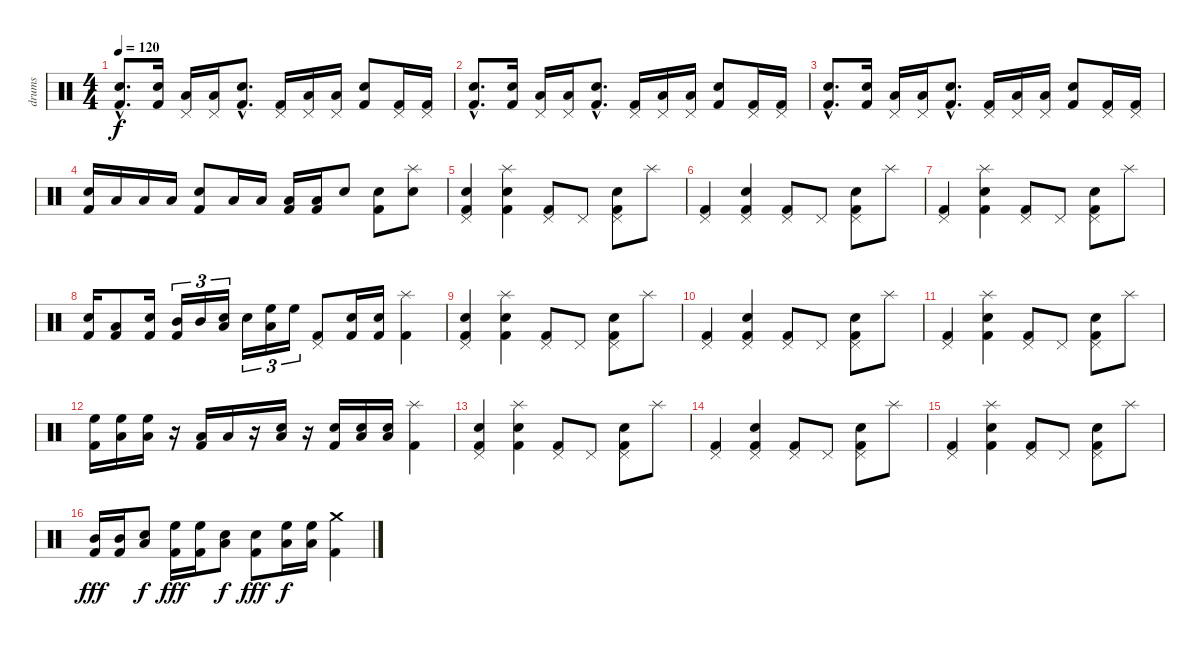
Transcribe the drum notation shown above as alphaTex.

\track ("drums" "drums") {instrument percussion}
\staff {score}
\articulation defaults
\ts (4 4)
\tempo 120
\clef neutral
\ks c
("Electric Snare (hit)"{hac} "Kick (hit) 2"{hac}).8{d dy f} ("Electric Snare (hit)" "Kick (hit) 2").16 ("Pedal Hi-Hat (hit)" "Low Tom (hit)").16 ("Pedal Hi-Hat (hit)" "Low Tom (hit)").16 ("Electric Snare (hit)"{hac} "Kick (hit) 2"{hac}).8{d} ("Pedal Hi-Hat (hit)" "Kick (hit) 2").16 ("Pedal Hi-Hat (hit)" "Low Tom (hit)").16 ("Pedal Hi-Hat (hit)" "Low Tom (hit)").16 ("Electric Snare (hit)" "Kick (hit) 2").8 ("Pedal Hi-Hat (hit)" "Kick (hit) 2").16 ("Pedal Hi-Hat (hit)" "Kick (hit) 2").16 |
("Electric Snare (hit)"{hac} "Kick (hit) 2"{hac}).8{d} ("Electric Snare (hit)" "Kick (hit) 2").16 ("Pedal Hi-Hat (hit)" "Low Tom (hit)").16 ("Pedal Hi-Hat (hit)" "Low Tom (hit)").16 ("Electric Snare (hit)"{hac} "Kick (hit) 2"{hac}).8{d} ("Pedal Hi-Hat (hit)" "Kick (hit) 2").16 ("Pedal Hi-Hat (hit)" "Low Tom (hit)").16 ("Pedal Hi-Hat (hit)" "Low Tom (hit)").16 ("Electric Snare (hit)" "Kick (hit) 2").8 ("Pedal Hi-Hat (hit)" "Kick (hit) 2").16 ("Pedal Hi-Hat (hit)" "Kick (hit) 2").16 |
("Electric Snare (hit)"{hac} "Kick (hit) 2"{hac}).8{d} ("Electric Snare (hit)" "Kick (hit) 2").16 ("Pedal Hi-Hat (hit)" "Low Tom (hit)").16 ("Pedal Hi-Hat (hit)" "Low Tom (hit)").16 ("Electric Snare (hit)"{hac} "Kick (hit) 2"{hac}).8{d} ("Pedal Hi-Hat (hit)" "Kick (hit) 2").16 ("Pedal Hi-Hat (hit)" "Low Tom (hit)").16 ("Pedal Hi-Hat (hit)" "Low Tom (hit)").16 ("Electric Snare (hit)" "Kick (hit) 2").8 ("Pedal Hi-Hat (hit)" "Kick (hit) 2").16 ("Pedal Hi-Hat (hit)" "Kick (hit) 2").16 |
("Electric Snare (hit)" "Kick (hit) 2").16 "Low Tom (hit)".16 "Low Tom (hit)".16 "Low Tom (hit)".16 ("Electric Snare (hit)" "Kick (hit) 2").8 "Low Tom (hit)".16 "Low Tom (hit)".16 ("Low Tom (hit)" "Kick (hit) 2").16 ("Low Tom (hit)" "Kick (hit) 2").16 "Electric Snare (hit)".8 ("Electric Snare (hit)" "Kick (hit) 2").8 ("Splash (hit)" "Electric Snare (hit)").8 |
("Pedal Hi-Hat (hit)" "Electric Snare (hit)" "Kick (hit) 2").4 ("Splash (hit)" "Electric Snare (hit)" "Kick (hit) 2").4 ("Pedal Hi-Hat (hit)" "Kick (hit) 2").8 "Pedal Hi-Hat (hit)".8 ("Pedal Hi-Hat (hit)" "Electric Snare (hit)" "Kick (hit) 2").8 "Splash (hit)".8 |
("Pedal Hi-Hat (hit)" "Kick (hit) 2").4 ("Pedal Hi-Hat (hit)" "Electric Snare (hit)" "Kick (hit) 2").4 ("Pedal Hi-Hat (hit)" "Kick (hit) 2").8 "Pedal Hi-Hat (hit)".8 ("Pedal Hi-Hat (hit)" "Electric Snare (hit)" "Kick (hit) 2").8 "Splash (hit)".8 |
("Pedal Hi-Hat (hit)" "Kick (hit) 2").4 ("Splash (hit)" "Electric Snare (hit)" "Kick (hit) 2").4 ("Pedal Hi-Hat (hit)" "Kick (hit) 2").8 "Pedal Hi-Hat (hit)".8 ("Pedal Hi-Hat (hit)" "Electric Snare (hit)" "Kick (hit) 2").8 "Splash (hit)".8 |
("Electric Snare (hit)" "Kick (hit) 2").16 ("Low Tom (hit)" "Kick (hit) 2").8 ("Electric Snare (hit)" "Kick (hit) 2").16 ("Mid Tom (hit)" "Kick (hit) 2").16{tu (3 2)} "Mid Tom (hit)".16{tu (3 2)} ("Electric Snare (hit)" "Low Tom (hit)").16{tu (3 2)} "Electric Snare (hit)".16{tu (3 2)} ("High Floor Tom (hit)" "Low Tom (hit)").16{tu (3 2)} "High Floor Tom (hit)".16{tu (3 2)} ("Pedal Hi-Hat (hit)" "Kick (hit) 2").8 ("Electric Snare (hit)" "Kick (hit) 2").16 ("Electric Snare (hit)" "Kick (hit) 2").16 ("Splash (hit)" "Kick (hit) 2").4 |
("Pedal Hi-Hat (hit)" "Electric Snare (hit)" "Kick (hit) 2").4 ("Splash (hit)" "Electric Snare (hit)" "Kick (hit) 2").4 ("Pedal Hi-Hat (hit)" "Kick (hit) 2").8 "Pedal Hi-Hat (hit)".8 ("Pedal Hi-Hat (hit)" "Electric Snare (hit)" "Kick (hit) 2").8 "Splash (hit)".8 |
("Pedal Hi-Hat (hit)" "Kick (hit) 2").4 ("Pedal Hi-Hat (hit)" "Electric Snare (hit)" "Kick (hit) 2").4 ("Pedal Hi-Hat (hit)" "Kick (hit) 2").8 "Pedal Hi-Hat (hit)".8 ("Pedal Hi-Hat (hit)" "Electric Snare (hit)" "Kick (hit) 2").8 "Splash (hit)".8 |
("Pedal Hi-Hat (hit)" "Kick (hit) 2").4 ("Splash (hit)" "Electric Snare (hit)" "Kick (hit) 2").4 ("Pedal Hi-Hat (hit)" "Kick (hit) 2").8 "Pedal Hi-Hat (hit)".8 ("Pedal Hi-Hat (hit)" "Electric Snare (hit)" "Kick (hit) 2").8 "Splash (hit)".8 |
("High Floor Tom (hit)" "Kick (hit) 2").16 ("High Floor Tom (hit)" "Low Tom (hit)").16 ("High Floor Tom (hit)" "Low Tom (hit)").16 r.16 ("Low Tom (hit)" "Kick (hit) 2").16 "Low Tom (hit)".16 r.16 ("Electric Snare (hit)" "Low Tom (hit)").16 r.16 ("Electric Snare (hit)" "Kick (hit) 2").16 ("Electric Snare (hit)" "Low Tom (hit)").16 ("Electric Snare (hit)" "Low Tom (hit)").16 ("Splash (hit)" "Kick (hit) 2").4 |
("Pedal Hi-Hat (hit)" "Electric Snare (hit)" "Kick (hit) 2").4 ("Splash (hit)" "Electric Snare (hit)" "Kick (hit) 2").4 ("Pedal Hi-Hat (hit)" "Kick (hit) 2").8 "Pedal Hi-Hat (hit)".8 ("Pedal Hi-Hat (hit)" "Electric Snare (hit)" "Kick (hit) 2").8 "Splash (hit)".8 |
("Pedal Hi-Hat (hit)" "Kick (hit) 2").4 ("Pedal Hi-Hat (hit)" "Electric Snare (hit)" "Kick (hit) 2").4 ("Pedal Hi-Hat (hit)" "Kick (hit) 2").8 "Pedal Hi-Hat (hit)".8 ("Pedal Hi-Hat (hit)" "Electric Snare (hit)" "Kick (hit) 2").8 "Splash (hit)".8 |
("Pedal Hi-Hat (hit)" "Kick (hit) 2").4 ("Splash (hit)" "Electric Snare (hit)" "Kick (hit) 2").4 ("Pedal Hi-Hat (hit)" "Kick (hit) 2").8 "Pedal Hi-Hat (hit)".8 ("Pedal Hi-Hat (hit)" "Electric Snare (hit)" "Kick (hit) 2").8 "Splash (hit)".8 |
("Mid Tom (hit)" "Kick (hit) 2").16{dy fff} ("Mid Tom (hit)" "Kick (hit) 2").16 ("Electric Snare (hit)" "Low Tom (hit)").8{dy f} ("High Floor Tom (hit)" "Kick (hit) 2").16{dy fff} ("High Floor Tom (hit)" "Kick (hit) 2").16 ("Electric Snare (hit)" "Low Tom (hit)").8{dy f} ("Electric Snare (hit)" "Kick (hit) 2").8{dy fff} ("High Floor Tom (hit)" "Low Tom (hit)").16{dy f} ("High Floor Tom (hit)" "Low Tom (hit)").16 ("Crash medium (hit)" "Kick (hit) 2").4
